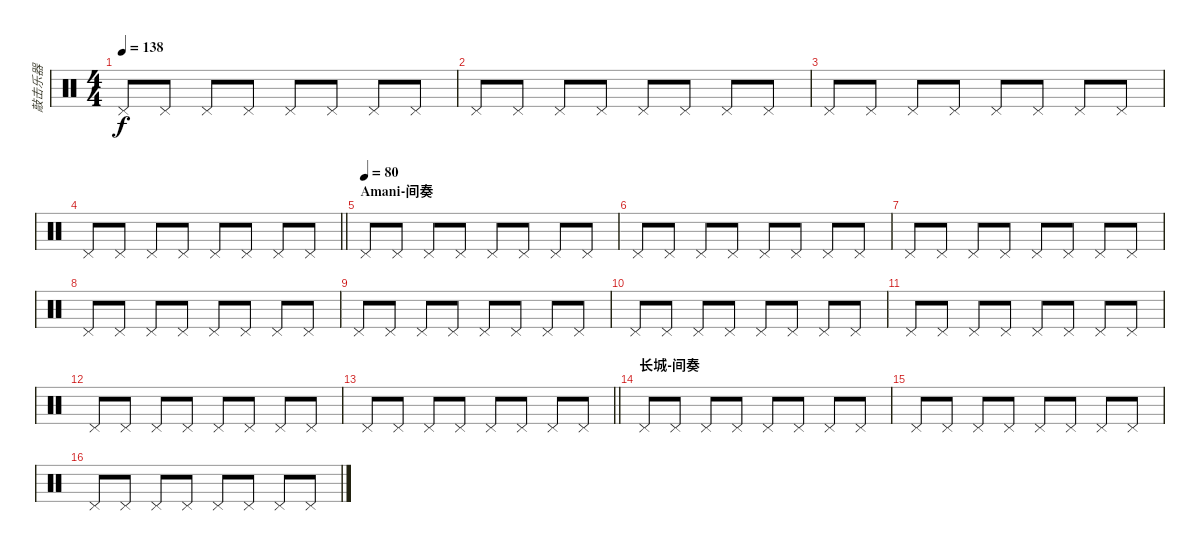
\track ("敲击乐器" "敲击乐器") {instrument percussion}
\staff {score}
\articulation defaults
\ts (4 4)
\tempo 138
\clef neutral
\ks c "Pedal Hi-Hat (hit)".8{dy f} "Pedal Hi-Hat (hit)".8 "Pedal Hi-Hat (hit)".8 "Pedal Hi-Hat (hit)".8 "Pedal Hi-Hat (hit)".8 "Pedal Hi-Hat (hit)".8 "Pedal Hi-Hat (hit)".8 "Pedal Hi-Hat (hit)".8
|
"Pedal Hi-Hat (hit)".8 "Pedal Hi-Hat (hit)".8 "Pedal Hi-Hat (hit)".8 "Pedal Hi-Hat (hit)".8 "Pedal Hi-Hat (hit)".8 "Pedal Hi-Hat (hit)".8 "Pedal Hi-Hat (hit)".8 "Pedal Hi-Hat (hit)".8 |
"Pedal Hi-Hat (hit)".8 "Pedal Hi-Hat (hit)".8 "Pedal Hi-Hat (hit)".8 "Pedal Hi-Hat (hit)".8 "Pedal Hi-Hat (hit)".8 "Pedal Hi-Hat (hit)".8 "Pedal Hi-Hat (hit)".8 "Pedal Hi-Hat (hit)".8 |
\barLineRight lightlight "Pedal Hi-Hat (hit)".8 "Pedal Hi-Hat (hit)".8 "Pedal Hi-Hat (hit)".8 "Pedal Hi-Hat (hit)".8 "Pedal Hi-Hat (hit)".8 "Pedal Hi-Hat (hit)".8 "Pedal Hi-Hat (hit)".8 "Pedal Hi-Hat (hit)".8
|
\section ("" "Amani-间奏")
\tempo (80)
"Pedal Hi-Hat (hit)".8 "Pedal Hi-Hat (hit)".8 "Pedal Hi-Hat (hit)".8 "Pedal Hi-Hat (hit)".8 "Pedal Hi-Hat (hit)".8 "Pedal Hi-Hat (hit)".8 "Pedal Hi-Hat (hit)".8 "Pedal Hi-Hat (hit)".8 |
"Pedal Hi-Hat (hit)".8 "Pedal Hi-Hat (hit)".8 "Pedal Hi-Hat (hit)".8 "Pedal Hi-Hat (hit)".8 "Pedal Hi-Hat (hit)".8 "Pedal Hi-Hat (hit)".8 "Pedal Hi-Hat (hit)".8 "Pedal Hi-Hat (hit)".8 |
"Pedal Hi-Hat (hit)".8 "Pedal Hi-Hat (hit)".8 "Pedal Hi-Hat (hit)".8 "Pedal Hi-Hat (hit)".8 "Pedal Hi-Hat (hit)".8 "Pedal Hi-Hat (hit)".8 "Pedal Hi-Hat (hit)".8 "Pedal Hi-Hat (hit)".8 |
"Pedal Hi-Hat (hit)".8 "Pedal Hi-Hat (hit)".8 "Pedal Hi-Hat (hit)".8 "Pedal Hi-Hat (hit)".8 "Pedal Hi-Hat (hit)".8 "Pedal Hi-Hat (hit)".8 "Pedal Hi-Hat (hit)".8 "Pedal Hi-Hat (hit)".8 |
"Pedal Hi-Hat (hit)".8 "Pedal Hi-Hat (hit)".8 "Pedal Hi-Hat (hit)".8 "Pedal Hi-Hat (hit)".8 "Pedal Hi-Hat (hit)".8 "Pedal Hi-Hat (hit)".8 "Pedal Hi-Hat (hit)".8 "Pedal Hi-Hat (hit)".8 |
"Pedal Hi-Hat (hit)".8 "Pedal Hi-Hat (hit)".8 "Pedal Hi-Hat (hit)".8 "Pedal Hi-Hat (hit)".8 "Pedal Hi-Hat (hit)".8 "Pedal Hi-Hat (hit)".8 "Pedal Hi-Hat (hit)".8 "Pedal Hi-Hat (hit)".8 |
"Pedal Hi-Hat (hit)".8 "Pedal Hi-Hat (hit)".8 "Pedal Hi-Hat (hit)".8 "Pedal Hi-Hat (hit)".8 "Pedal Hi-Hat (hit)".8 "Pedal Hi-Hat (hit)".8 "Pedal Hi-Hat (hit)".8 "Pedal Hi-Hat (hit)".8 |
"Pedal Hi-Hat (hit)".8 "Pedal Hi-Hat (hit)".8 "Pedal Hi-Hat (hit)".8 "Pedal Hi-Hat (hit)".8 "Pedal Hi-Hat (hit)".8 "Pedal Hi-Hat (hit)".8 "Pedal Hi-Hat (hit)".8 "Pedal Hi-Hat (hit)".8 |
\barLineRight lightlight "Pedal Hi-Hat (hit)".8 "Pedal Hi-Hat (hit)".8 "Pedal Hi-Hat (hit)".8 "Pedal Hi-Hat (hit)".8 "Pedal Hi-Hat (hit)".8 "Pedal Hi-Hat (hit)".8 "Pedal Hi-Hat (hit)".8 "Pedal Hi-Hat (hit)".8
|
\section ("" "长城-间奏")
"Pedal Hi-Hat (hit)".8 "Pedal Hi-Hat (hit)".8 "Pedal Hi-Hat (hit)".8 "Pedal Hi-Hat (hit)".8 "Pedal Hi-Hat (hit)".8 "Pedal Hi-Hat (hit)".8 "Pedal Hi-Hat (hit)".8 "Pedal Hi-Hat (hit)".8 |
"Pedal Hi-Hat (hit)".8 "Pedal Hi-Hat (hit)".8 "Pedal Hi-Hat (hit)".8 "Pedal Hi-Hat (hit)".8 "Pedal Hi-Hat (hit)".8 "Pedal Hi-Hat (hit)".8 "Pedal Hi-Hat (hit)".8 "Pedal Hi-Hat (hit)".8 |
"Pedal Hi-Hat (hit)".8 "Pedal Hi-Hat (hit)".8 "Pedal Hi-Hat (hit)".8 "Pedal Hi-Hat (hit)".8 "Pedal Hi-Hat (hit)".8 "Pedal Hi-Hat (hit)".8 "Pedal Hi-Hat (hit)".8 "Pedal Hi-Hat (hit)".8
